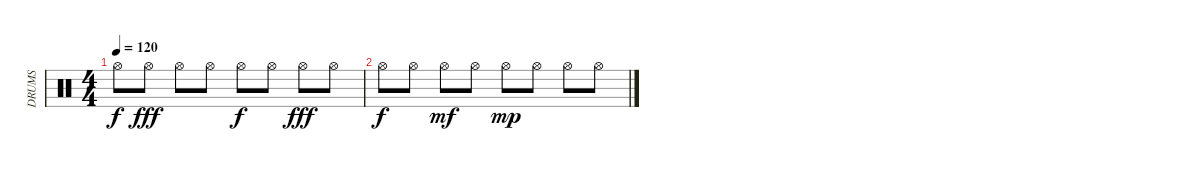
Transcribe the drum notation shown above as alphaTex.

\track ("DRUMS" "DRUMS") {instrument percussion}
\staff {score}
\articulation defaults
\ts (4 4)
\tempo 120
\clef neutral
\ks c "Hi-Hat (open)".8{dy f volume 12} "Hi-Hat (open)".8{dy fff} "Hi-Hat (open)".8 "Hi-Hat (open)".8 "Hi-Hat (open)".8{dy f volume 10} "Hi-Hat (open)".8 "Hi-Hat (open)".8{dy fff} "Hi-Hat (open)".8
|
"Hi-Hat (open)".8{dy f volume 9} "Hi-Hat (open)".8{volume 8} "Hi-Hat (open)".8{dy mf volume 7} "Hi-Hat (open)".8{volume 7} "Hi-Hat (open)".8{dy mp volume 5} "Hi-Hat (open)".8{volume 4} "Hi-Hat (open)".8{volume 3} "Hi-Hat (open)".8{volume 1}
